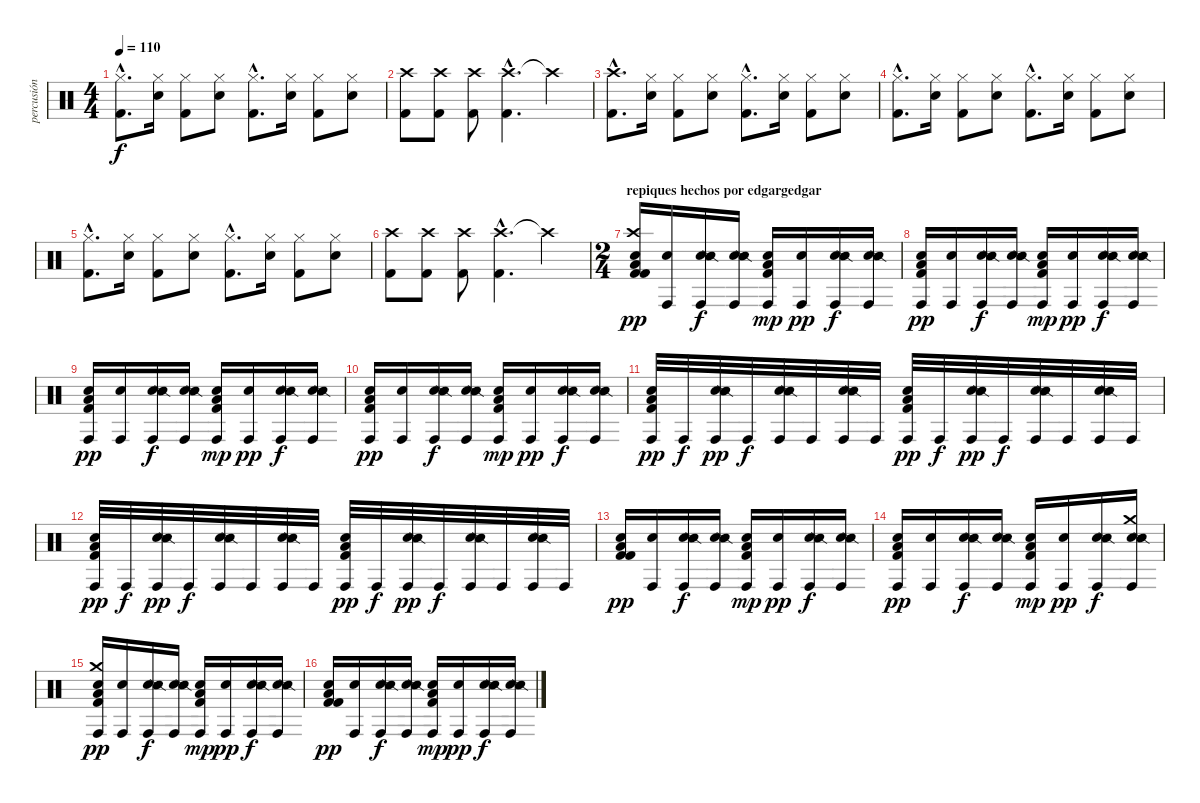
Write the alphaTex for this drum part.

\track ("percusión" "percusión") {instrument percussion}
\staff {score}
\articulation defaults
\ts (4 4)
\tempo 110
\clef neutral
\ks c
("Kick (hit) 2"{hac} "Hi-Hat (closed)"{hac}).8{d dy f} ("Snare (hit) 2" "Hi-Hat (closed)").16 ("Kick (hit) 2" "Hi-Hat (closed)").8 ("Snare (hit) 2" "Hi-Hat (closed)").8 ("Kick (hit) 2"{hac} "Hi-Hat (closed)"{hac}).8{d} ("Snare (hit) 2" "Hi-Hat (closed)").16 ("Kick (hit) 2" "Hi-Hat (closed)").8 ("Snare (hit) 2" "Hi-Hat (closed)").8 |
("Crash high (hit)" "Kick (hit) 2").8 ("Crash high (hit)" "Kick (hit) 2").8 ("Crash high (hit)" "Kick (hit) 2").8 ("Crash high (hit)"{hac} "Kick (hit) 2"{hac}).4{d} "Crash high (hit)"{t}.4 |
("Kick (hit) 2"{hac} "Crash high (hit)"{hac}).8{d} ("Snare (hit) 2" "Hi-Hat (closed)").16 ("Kick (hit) 2" "Hi-Hat (closed)").8 ("Snare (hit) 2" "Hi-Hat (closed)").8 ("Kick (hit) 2"{hac} "Hi-Hat (closed)"{hac}).8{d} ("Snare (hit) 2" "Hi-Hat (closed)").16 ("Kick (hit) 2" "Hi-Hat (closed)").8 ("Snare (hit) 2" "Hi-Hat (closed)").8 |
("Kick (hit) 2"{hac} "Hi-Hat (closed)"{hac}).8{d} ("Snare (hit) 2" "Hi-Hat (closed)").16 ("Kick (hit) 2" "Hi-Hat (closed)").8 ("Snare (hit) 2" "Hi-Hat (closed)").8 ("Kick (hit) 2"{hac} "Hi-Hat (closed)"{hac}).8{d} ("Snare (hit) 2" "Hi-Hat (closed)").16 ("Kick (hit) 2" "Hi-Hat (closed)").8 ("Snare (hit) 2" "Hi-Hat (closed)").8 |
("Kick (hit) 2"{hac} "Hi-Hat (closed)"{hac}).8{d} ("Snare (hit) 2" "Hi-Hat (closed)").16 ("Kick (hit) 2" "Hi-Hat (closed)").8 ("Snare (hit) 2" "Hi-Hat (closed)").8 ("Kick (hit) 2"{hac} "Hi-Hat (closed)"{hac}).8{d} ("Snare (hit) 2" "Hi-Hat (closed)").16 ("Kick (hit) 2" "Hi-Hat (closed)").8 ("Snare (hit) 2" "Hi-Hat (closed)").8 |
("Crash high (hit)" "Kick (hit) 2").8 ("Crash high (hit)" "Kick (hit) 2").8 ("Crash high (hit)" "Kick (hit) 2").8 ("Crash high (hit)"{hac} "Kick (hit) 2"{hac}).4{d} "Crash high (hit)"{t}.4 |
\ts (2 4)
\section ("" "repiques hechos por edgargedgar")
("Crash high (hit)" "Electric Snare (hit)" "Kick (hit) 2" "Kick (hit) 2" "Low Floor Tom (hit)").16{dy pp} ("Electric Snare (hit)" "Conga high (hit)").16 ("Electric Snare (hit)" "Snare (side stick) 2" "Conga high (hit)").16{dy f} ("Electric Snare (hit)" "Snare (side stick) 2" "Conga high (hit)").16 ("Electric Snare (hit)" "Conga high (hit)" "Kick (hit) 2" "Low Floor Tom (hit)").16{dy mp} ("Electric Snare (hit)" "Conga high (hit)").16{dy pp} ("Electric Snare (hit)" "Snare (side stick) 2" "Conga high (hit)").16{dy f} ("Electric Snare (hit)" "Snare (side stick) 2" "Conga high (hit)").16 |
("Electric Snare (hit)" "Kick (hit) 2" "Conga high (hit)" "Low Floor Tom (hit)").16{dy pp} ("Electric Snare (hit)" "Conga high (hit)").16 ("Electric Snare (hit)" "Snare (side stick) 2" "Conga high (hit)").16{dy f} ("Electric Snare (hit)" "Snare (side stick) 2" "Conga high (hit)").16 ("Electric Snare (hit)" "Conga high (hit)" "Kick (hit) 2" "Low Floor Tom (hit)").16{dy mp} ("Electric Snare (hit)" "Conga high (hit)").16{dy pp} ("Electric Snare (hit)" "Snare (side stick) 2" "Conga high (hit)").16{dy f} ("Electric Snare (hit)" "Snare (side stick) 2" "Conga high (hit)").16 |
("Electric Snare (hit)" "Kick (hit) 2" "Conga high (hit)" "Low Floor Tom (hit)").16{dy pp} ("Electric Snare (hit)" "Conga high (hit)").16 ("Electric Snare (hit)" "Snare (side stick) 2" "Conga high (hit)").16{dy f} ("Electric Snare (hit)" "Snare (side stick) 2" "Conga high (hit)").16 ("Electric Snare (hit)" "Conga high (hit)" "Kick (hit) 2" "Low Floor Tom (hit)").16{dy mp} ("Electric Snare (hit)" "Conga high (hit)").16{dy pp} ("Electric Snare (hit)" "Snare (side stick) 2" "Conga high (hit)").16{dy f} ("Electric Snare (hit)" "Snare (side stick) 2" "Conga high (hit)").16 |
("Electric Snare (hit)" "Kick (hit) 2" "Conga high (hit)" "Low Floor Tom (hit)").16{dy pp} ("Electric Snare (hit)" "Conga high (hit)").16 ("Electric Snare (hit)" "Snare (side stick) 2" "Conga high (hit)").16{dy f} ("Electric Snare (hit)" "Snare (side stick) 2" "Conga high (hit)").16 ("Electric Snare (hit)" "Conga high (hit)" "Kick (hit) 2" "Low Floor Tom (hit)").16{dy mp} ("Electric Snare (hit)" "Conga high (hit)").16{dy pp} ("Electric Snare (hit)" "Snare (side stick) 2" "Conga high (hit)").16{dy f} ("Electric Snare (hit)" "Snare (side stick) 2" "Conga high (hit)").16 |
("Conga high (hit)" "Electric Snare (hit)" "Kick (hit) 2" "Low Floor Tom (hit)").32{dy pp} "Conga high (hit)".32{dy f} ("Conga high (hit)" "Electric Snare (hit)" "Snare (side stick) 2").32{dy pp} "Conga high (hit)".32{dy f} ("Conga high (hit)" "Electric Snare (hit)" "Snare (side stick) 2").32 "Conga high (hit)".32 ("Conga high (hit)" "Electric Snare (hit)" "Snare (side stick) 2").32 "Conga high (hit)".32 ("Conga high (hit)" "Electric Snare (hit)" "Kick (hit) 2" "Low Floor Tom (hit)").32{dy pp} "Conga high (hit)".32{dy f} ("Conga high (hit)" "Electric Snare (hit)" "Snare (side stick) 2").32{dy pp} "Conga high (hit)".32{dy f} ("Conga high (hit)" "Electric Snare (hit)" "Snare (side stick) 2").32 "Conga high (hit)".32 ("Conga high (hit)" "Electric Snare (hit)" "Snare (side stick) 2").32 "Conga high (hit)".32 |
("Conga high (hit)" "Electric Snare (hit)" "Kick (hit) 2" "Low Floor Tom (hit)").32{dy pp} "Conga high (hit)".32{dy f} ("Conga high (hit)" "Electric Snare (hit)" "Snare (side stick) 2").32{dy pp} "Conga high (hit)".32{dy f} ("Conga high (hit)" "Electric Snare (hit)" "Snare (side stick) 2").32 "Conga high (hit)".32 ("Conga high (hit)" "Electric Snare (hit)" "Snare (side stick) 2").32 "Conga high (hit)".32 ("Conga high (hit)" "Electric Snare (hit)" "Kick (hit) 2" "Low Floor Tom (hit)").32{dy pp} "Conga high (hit)".32{dy f} ("Conga high (hit)" "Electric Snare (hit)" "Snare (side stick) 2").32{dy pp} "Conga high (hit)".32{dy f} ("Conga high (hit)" "Electric Snare (hit)" "Snare (side stick) 2").32 "Conga high (hit)".32 ("Conga high (hit)" "Electric Snare (hit)" "Snare (side stick) 2").32 "Conga high (hit)".32 |
("Electric Snare (hit)" "Kick (hit) 2" "Kick (hit) 2" "Low Floor Tom (hit)").16{dy pp} ("Electric Snare (hit)" "Conga high (hit)").16 ("Electric Snare (hit)" "Snare (side stick) 2" "Conga high (hit)").16{dy f} ("Electric Snare (hit)" "Snare (side stick) 2" "Conga high (hit)").16 ("Electric Snare (hit)" "Conga high (hit)" "Kick (hit) 2" "Low Floor Tom (hit)").16{dy mp} ("Electric Snare (hit)" "Conga high (hit)").16{dy pp} ("Electric Snare (hit)" "Snare (side stick) 2" "Conga high (hit)").16{dy f} ("Electric Snare (hit)" "Snare (side stick) 2" "Conga high (hit)").16 |
("Electric Snare (hit)" "Kick (hit) 2" "Conga high (hit)" "Low Floor Tom (hit)").16{dy pp} ("Electric Snare (hit)" "Conga high (hit)").16 ("Electric Snare (hit)" "Snare (side stick) 2" "Conga high (hit)").16{dy f} ("Electric Snare (hit)" "Snare (side stick) 2" "Conga high (hit)").16 ("Electric Snare (hit)" "Conga high (hit)" "Kick (hit) 2" "Low Floor Tom (hit)").16{dy mp} ("Electric Snare (hit)" "Conga high (hit)").16{dy pp} ("Electric Snare (hit)" "Snare (side stick) 2" "Conga high (hit)").16{dy f} ("Electric Snare (hit)" "Snare (side stick) 2" "Conga high (hit)" "Crash medium (hit)").16 |
("Crash medium (hit)" "Electric Snare (hit)" "Kick (hit) 2" "Conga high (hit)" "Low Floor Tom (hit)").16{dy pp} ("Electric Snare (hit)" "Conga high (hit)").16 ("Electric Snare (hit)" "Snare (side stick) 2" "Conga high (hit)").16{dy f} ("Electric Snare (hit)" "Snare (side stick) 2" "Conga high (hit)").16 ("Electric Snare (hit)" "Conga high (hit)" "Kick (hit) 2" "Low Floor Tom (hit)").16{dy mp} ("Electric Snare (hit)" "Conga high (hit)").16{dy pp} ("Electric Snare (hit)" "Snare (side stick) 2" "Conga high (hit)").16{dy f} ("Electric Snare (hit)" "Snare (side stick) 2" "Conga high (hit)").16 |
("Electric Snare (hit)" "Kick (hit) 2" "Kick (hit) 2" "Low Floor Tom (hit)").16{dy pp} ("Electric Snare (hit)" "Conga high (hit)").16 ("Electric Snare (hit)" "Snare (side stick) 2" "Conga high (hit)").16{dy f} ("Electric Snare (hit)" "Snare (side stick) 2" "Conga high (hit)").16 ("Electric Snare (hit)" "Conga high (hit)" "Kick (hit) 2" "Low Floor Tom (hit)").16{dy mp} ("Electric Snare (hit)" "Conga high (hit)").16{dy pp} ("Electric Snare (hit)" "Snare (side stick) 2" "Conga high (hit)").16{dy f} ("Electric Snare (hit)" "Snare (side stick) 2" "Conga high (hit)").16
